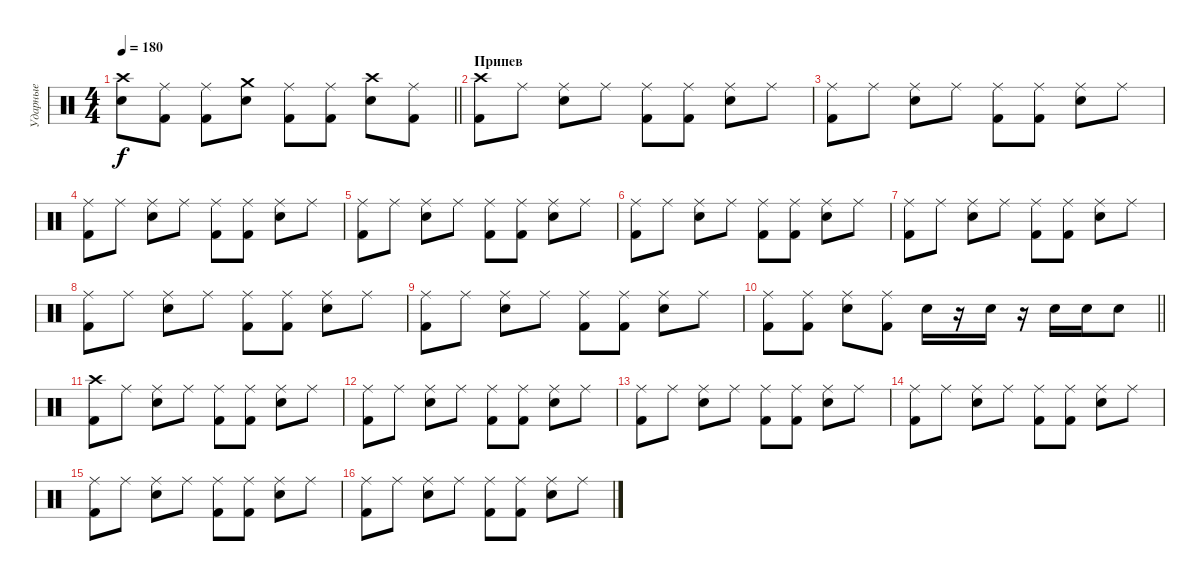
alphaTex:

\track ("Ударные" "Ударные") {instrument percussion}
\staff {score}
\articulation defaults
\ts (4 4)
\tempo 180
\clef neutral
\barLineRight lightlight
\ks c
("Crash high (hit)" "Electric Snare (hit)").8{dy f} ("Ride (middle)" "Kick (hit) 2").8 ("Ride (middle)" "Kick (hit) 2").8 ("Crash medium (hit)" "Electric Snare (hit)").8 ("Ride (middle)" "Kick (hit) 2").8 ("Ride (middle)" "Kick (hit) 2").8 ("Crash high (hit)" "Electric Snare (hit)").8 ("Ride (middle)" "Kick (hit) 2").8 |
\section ("" "Припев")
("Crash high (hit)" "Kick (hit) 2").8 "Ride (middle)".8 ("Ride (middle)" "Electric Snare (hit)").8 "Ride (middle)".8 ("Ride (middle)" "Kick (hit) 2").8 ("Ride (middle)" "Kick (hit) 2").8 ("Ride (middle)" "Electric Snare (hit)").8 "Ride (middle)".8 |
("Ride (middle)" "Kick (hit) 2").8 "Ride (middle)".8 ("Ride (middle)" "Electric Snare (hit)").8 "Ride (middle)".8 ("Ride (middle)" "Kick (hit) 2").8 ("Ride (middle)" "Kick (hit) 2").8 ("Ride (middle)" "Electric Snare (hit)").8 "Ride (middle)".8 |
("Ride (middle)" "Kick (hit) 2").8 "Ride (middle)".8 ("Ride (middle)" "Electric Snare (hit)").8 "Ride (middle)".8 ("Ride (middle)" "Kick (hit) 2").8 ("Ride (middle)" "Kick (hit) 2").8 ("Ride (middle)" "Electric Snare (hit)").8 "Ride (middle)".8 |
("Ride (middle)" "Kick (hit) 2").8 "Ride (middle)".8 ("Ride (middle)" "Electric Snare (hit)").8 "Ride (middle)".8 ("Ride (middle)" "Kick (hit) 2").8 ("Ride (middle)" "Kick (hit) 2").8 ("Ride (middle)" "Electric Snare (hit)").8 "Ride (middle)".8 |
("Ride (middle)" "Kick (hit) 2").8 "Ride (middle)".8 ("Ride (middle)" "Electric Snare (hit)").8 "Ride (middle)".8 ("Ride (middle)" "Kick (hit) 2").8 ("Ride (middle)" "Kick (hit) 2").8 ("Ride (middle)" "Electric Snare (hit)").8 "Ride (middle)".8 |
("Ride (middle)" "Kick (hit) 2").8 "Ride (middle)".8 ("Ride (middle)" "Electric Snare (hit)").8 "Ride (middle)".8 ("Ride (middle)" "Kick (hit) 2").8 ("Ride (middle)" "Kick (hit) 2").8 ("Ride (middle)" "Electric Snare (hit)").8 "Ride (middle)".8 |
("Ride (middle)" "Kick (hit) 2").8 "Ride (middle)".8 ("Ride (middle)" "Electric Snare (hit)").8 "Ride (middle)".8 ("Ride (middle)" "Kick (hit) 2").8 ("Ride (middle)" "Kick (hit) 2").8 ("Ride (middle)" "Electric Snare (hit)").8 "Ride (middle)".8 |
("Ride (middle)" "Kick (hit) 2").8 "Ride (middle)".8 ("Ride (middle)" "Electric Snare (hit)").8 "Ride (middle)".8 ("Ride (middle)" "Kick (hit) 2").8 ("Ride (middle)" "Kick (hit) 2").8 ("Ride (middle)" "Electric Snare (hit)").8 "Ride (middle)".8 |
\barLineRight lightlight
("Ride (middle)" "Kick (hit) 2").8 ("Ride (middle)" "Kick (hit) 2").8 ("Ride (middle)" "Electric Snare (hit)").8 ("Ride (middle)" "Kick (hit) 2").8 "Electric Snare (hit)".16 r.16 "Electric Snare (hit)".16 r.16 "Electric Snare (hit)".16 "Electric Snare (hit)".16 "Electric Snare (hit)".8 |
("Crash high (hit)" "Kick (hit) 2").8 "Ride (middle)".8 ("Ride (middle)" "Electric Snare (hit)").8 "Ride (middle)".8 ("Ride (middle)" "Kick (hit) 2").8 ("Ride (middle)" "Kick (hit) 2").8 ("Ride (middle)" "Electric Snare (hit)").8 "Ride (middle)".8 |
("Ride (middle)" "Kick (hit) 2").8 "Ride (middle)".8 ("Ride (middle)" "Electric Snare (hit)").8 "Ride (middle)".8 ("Ride (middle)" "Kick (hit) 2").8 ("Ride (middle)" "Kick (hit) 2").8 ("Ride (middle)" "Electric Snare (hit)").8 "Ride (middle)".8 |
("Ride (middle)" "Kick (hit) 2").8 "Ride (middle)".8 ("Ride (middle)" "Electric Snare (hit)").8 "Ride (middle)".8 ("Ride (middle)" "Kick (hit) 2").8 ("Ride (middle)" "Kick (hit) 2").8 ("Ride (middle)" "Electric Snare (hit)").8 "Ride (middle)".8 |
("Ride (middle)" "Kick (hit) 2").8 "Ride (middle)".8 ("Ride (middle)" "Electric Snare (hit)").8 "Ride (middle)".8 ("Ride (middle)" "Kick (hit) 2").8 ("Ride (middle)" "Kick (hit) 2").8 ("Ride (middle)" "Electric Snare (hit)").8 "Ride (middle)".8 |
("Ride (middle)" "Kick (hit) 2").8 "Ride (middle)".8 ("Ride (middle)" "Electric Snare (hit)").8 "Ride (middle)".8 ("Ride (middle)" "Kick (hit) 2").8 ("Ride (middle)" "Kick (hit) 2").8 ("Ride (middle)" "Electric Snare (hit)").8 "Ride (middle)".8 |
("Ride (middle)" "Kick (hit) 2").8 "Ride (middle)".8 ("Ride (middle)" "Electric Snare (hit)").8 "Ride (middle)".8 ("Ride (middle)" "Kick (hit) 2").8 ("Ride (middle)" "Kick (hit) 2").8 ("Ride (middle)" "Electric Snare (hit)").8 "Ride (middle)".8
